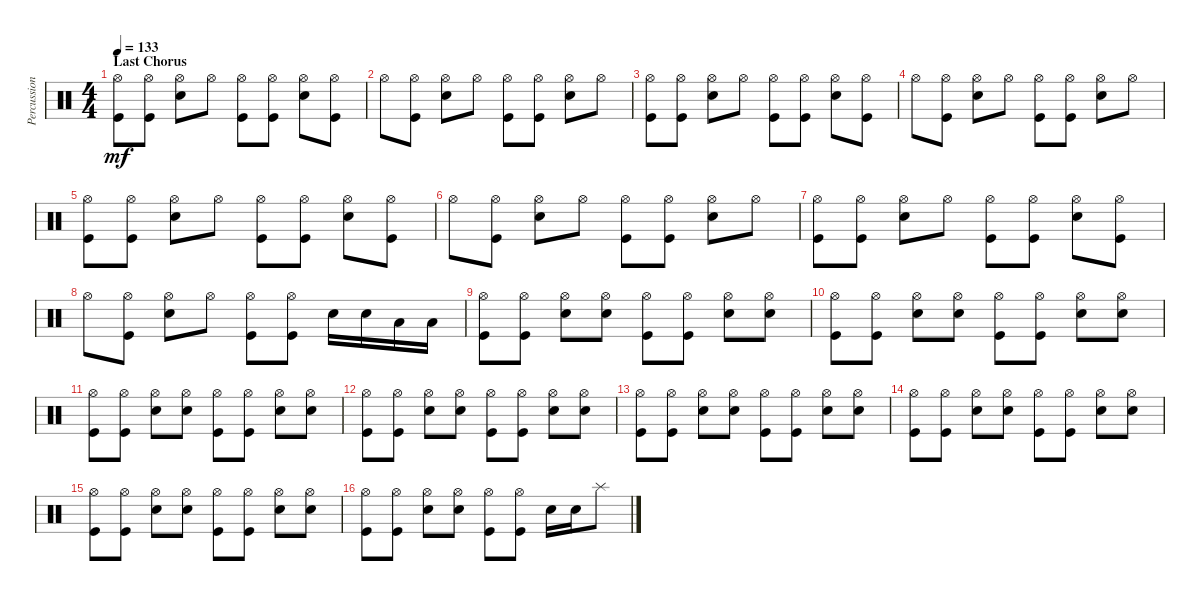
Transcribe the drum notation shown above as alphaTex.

\track ("Percussion" "Percussion") {instrument percussion}
\staff {score}
\articulation defaults
\ts (4 4)
\section ("" "Last Chorus")
\tempo 133
\clef neutral
\ks c
("Hi-Hat (open)" "Kick (hit)").8{dy mf} ("Hi-Hat (open)" "Kick (hit)").8 ("Hi-Hat (open)" "Snare (hit) 2").8 "Hi-Hat (open)".8 ("Hi-Hat (open)" "Kick (hit)").8 ("Hi-Hat (open)" "Kick (hit)").8 ("Hi-Hat (open)" "Snare (hit) 2").8 ("Hi-Hat (open)" "Kick (hit)").8 |
"Hi-Hat (open)".8 ("Hi-Hat (open)" "Kick (hit)").8 ("Hi-Hat (open)" "Snare (hit) 2").8 "Hi-Hat (open)".8 ("Hi-Hat (open)" "Kick (hit)").8 ("Hi-Hat (open)" "Kick (hit)").8 ("Hi-Hat (open)" "Snare (hit) 2").8 "Hi-Hat (open)".8 |
("Hi-Hat (open)" "Kick (hit)").8 ("Hi-Hat (open)" "Kick (hit)").8 ("Hi-Hat (open)" "Snare (hit) 2").8 "Hi-Hat (open)".8 ("Hi-Hat (open)" "Kick (hit)").8 ("Hi-Hat (open)" "Kick (hit)").8 ("Hi-Hat (open)" "Snare (hit) 2").8 ("Hi-Hat (open)" "Kick (hit)").8 |
"Hi-Hat (open)".8 ("Hi-Hat (open)" "Kick (hit)").8 ("Hi-Hat (open)" "Snare (hit) 2").8 "Hi-Hat (open)".8 ("Hi-Hat (open)" "Kick (hit)").8 ("Hi-Hat (open)" "Kick (hit)").8 ("Hi-Hat (open)" "Snare (hit) 2").8 "Hi-Hat (open)".8 |
("Hi-Hat (open)" "Kick (hit)").8 ("Hi-Hat (open)" "Kick (hit)").8 ("Hi-Hat (open)" "Snare (hit) 2").8 "Hi-Hat (open)".8 ("Hi-Hat (open)" "Kick (hit)").8 ("Hi-Hat (open)" "Kick (hit)").8 ("Hi-Hat (open)" "Snare (hit) 2").8 ("Hi-Hat (open)" "Kick (hit)").8 |
"Hi-Hat (open)".8 ("Hi-Hat (open)" "Kick (hit)").8 ("Hi-Hat (open)" "Snare (hit) 2").8 "Hi-Hat (open)".8 ("Hi-Hat (open)" "Kick (hit)").8 ("Hi-Hat (open)" "Kick (hit)").8 ("Hi-Hat (open)" "Snare (hit) 2").8 "Hi-Hat (open)".8 |
("Hi-Hat (open)" "Kick (hit)").8 ("Hi-Hat (open)" "Kick (hit)").8 ("Hi-Hat (open)" "Snare (hit) 2").8 "Hi-Hat (open)".8 ("Hi-Hat (open)" "Kick (hit)").8 ("Hi-Hat (open)" "Kick (hit)").8 ("Hi-Hat (open)" "Snare (hit) 2").8 ("Hi-Hat (open)" "Kick (hit)").8 |
"Hi-Hat (open)".8 ("Hi-Hat (open)" "Kick (hit)").8 ("Hi-Hat (open)" "Snare (hit) 2").8 "Hi-Hat (open)".8 ("Hi-Hat (open)" "Kick (hit)").8 ("Hi-Hat (open)" "Kick (hit)").8 "Snare (hit) 2".16 "Snare (hit) 2".16 "Low Tom (hit)".16 "Low Tom (hit)".16 |
("Hi-Hat (open)" "Kick (hit)").8 ("Hi-Hat (open)" "Kick (hit)").8 ("Hi-Hat (open)" "Snare (hit) 2").8 ("Hi-Hat (open)" "Snare (hit) 2").8 ("Hi-Hat (open)" "Kick (hit)").8 ("Hi-Hat (open)" "Kick (hit)").8 ("Hi-Hat (open)" "Snare (hit) 2").8 ("Hi-Hat (open)" "Snare (hit) 2").8 |
("Hi-Hat (open)" "Kick (hit)").8 ("Hi-Hat (open)" "Kick (hit)").8 ("Hi-Hat (open)" "Snare (hit) 2").8 ("Hi-Hat (open)" "Snare (hit) 2").8 ("Hi-Hat (open)" "Kick (hit)").8 ("Hi-Hat (open)" "Kick (hit)").8 ("Hi-Hat (open)" "Snare (hit) 2").8 ("Hi-Hat (open)" "Snare (hit) 2").8 |
("Hi-Hat (open)" "Kick (hit)").8 ("Hi-Hat (open)" "Kick (hit)").8 ("Hi-Hat (open)" "Snare (hit) 2").8 ("Hi-Hat (open)" "Snare (hit) 2").8 ("Hi-Hat (open)" "Kick (hit)").8 ("Hi-Hat (open)" "Kick (hit)").8 ("Hi-Hat (open)" "Snare (hit) 2").8 ("Hi-Hat (open)" "Snare (hit) 2").8 |
("Hi-Hat (open)" "Kick (hit)").8 ("Hi-Hat (open)" "Kick (hit)").8 ("Hi-Hat (open)" "Snare (hit) 2").8 ("Hi-Hat (open)" "Snare (hit) 2").8 ("Hi-Hat (open)" "Kick (hit)").8 ("Hi-Hat (open)" "Kick (hit)").8 ("Hi-Hat (open)" "Snare (hit) 2").8 ("Hi-Hat (open)" "Snare (hit) 2").8 |
("Hi-Hat (open)" "Kick (hit)").8 ("Hi-Hat (open)" "Kick (hit)").8 ("Hi-Hat (open)" "Snare (hit) 2").8 ("Hi-Hat (open)" "Snare (hit) 2").8 ("Hi-Hat (open)" "Kick (hit)").8 ("Hi-Hat (open)" "Kick (hit)").8 ("Hi-Hat (open)" "Snare (hit) 2").8 ("Hi-Hat (open)" "Snare (hit) 2").8 |
("Hi-Hat (open)" "Kick (hit)").8 ("Hi-Hat (open)" "Kick (hit)").8 ("Hi-Hat (open)" "Snare (hit) 2").8 ("Hi-Hat (open)" "Snare (hit) 2").8 ("Hi-Hat (open)" "Kick (hit)").8 ("Hi-Hat (open)" "Kick (hit)").8 ("Hi-Hat (open)" "Snare (hit) 2").8 ("Hi-Hat (open)" "Snare (hit) 2").8 |
("Hi-Hat (open)" "Kick (hit)").8 ("Hi-Hat (open)" "Kick (hit)").8 ("Hi-Hat (open)" "Snare (hit) 2").8 ("Hi-Hat (open)" "Snare (hit) 2").8 ("Hi-Hat (open)" "Kick (hit)").8 ("Hi-Hat (open)" "Kick (hit)").8 ("Hi-Hat (open)" "Snare (hit) 2").8 ("Hi-Hat (open)" "Snare (hit) 2").8 |
("Hi-Hat (open)" "Kick (hit)").8 ("Hi-Hat (open)" "Kick (hit)").8 ("Hi-Hat (open)" "Snare (hit) 2").8 ("Hi-Hat (open)" "Snare (hit) 2").8 ("Hi-Hat (open)" "Kick (hit)").8 ("Hi-Hat (open)" "Kick (hit)").8 "Snare (hit) 2".16 "Snare (hit) 2".16 "Splash (hit)".8
